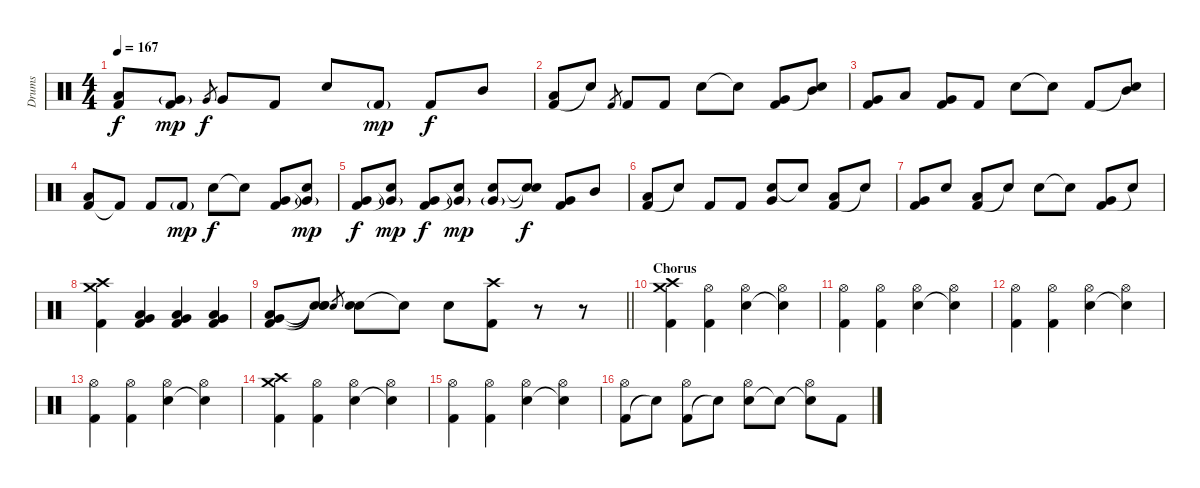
\track ("Drums" "Drums") {instrument percussion}
\staff {score}
\articulation defaults
\ts (4 4)
\tempo 167
\clef neutral
\ks c
("Kick (hit) 2" "Low Tom (hit)").8{dy f} ("Kick (hit) 2" "Very Low Tom (hit)"{g}).8{dy mp} "Very Low Tom (hit)".8{gr dy f} "Very Low Tom (hit)".8 "Kick (hit) 2".8 "Electric Snare (hit)".8 "Kick (hit) 2"{g}.8{dy mp} "Kick (hit) 2".8{dy f} "Mid Tom (hit)".8 |
("Kick (hit) 2" "Low Tom (hit)").8 "Snare (hit)"{t}.8 "Kick (hit) 2".8{gr} "Kick (hit) 2".8 "Kick (hit) 2".8 "Electric Snare (hit)".8 "Snare (hit)"{t}.8 ("Kick (hit) 2" "Very Low Tom (hit)").8 ("Snare (hit)"{t} "Mid Tom (hit)").8 |
("Kick (hit) 2" "Very Low Tom (hit)").8 "Low Tom (hit)".8 ("Kick (hit) 2" "Very Low Tom (hit)").8 "Kick (hit) 2".8 "Electric Snare (hit)".8 "Snare (hit)"{t}.8 "Kick (hit) 2".8 ("Snare (hit)"{t} "Mid Tom (hit)").8 |
("Kick (hit) 2" "Low Tom (hit)").8 "Kick (hit) 2"{t}.8 "Kick (hit) 2".8 "Kick (hit) 2"{g}.8{dy mp} "Electric Snare (hit)".8{dy f} "Snare (hit)"{t}.8 ("Kick (hit) 2" "Very Low Tom (hit)").8 ("Snare (hit)"{t} "Very Low Tom (hit)"{g}).8{dy mp} |
("Kick (hit) 2" "Very Low Tom (hit)").8{dy f} ("Snare (hit)"{t} "Very Low Tom (hit)"{g}).8{dy mp} ("Kick (hit) 2" "Very Low Tom (hit)").8{dy f} ("Snare (hit)"{t} "Very Low Tom (hit)"{g}).8{dy mp} ("Electric Snare (hit)" "Very Low Tom (hit)"{g}).8 ("Snare (hit)"{t} "Snare (hit)"{t}).8{dy f} ("Kick (hit) 2" "Very Low Tom (hit)").8 "Mid Tom (hit)".8 |
("Kick (hit) 2" "Low Tom (hit)").8 "Snare (hit)"{t}.8 "Kick (hit) 2".8 "Kick (hit) 2".8 ("Electric Snare (hit)" "Very Low Tom (hit)").8 "Snare (hit)"{t}.8 ("Kick (hit) 2" "Low Tom (hit)").8 "Snare (hit)"{t}.8 |
("Kick (hit) 2" "Very Low Tom (hit)").8 "Electric Snare (hit)".8 ("Kick (hit) 2" "Low Tom (hit)").8 "Snare (hit)"{t}.8 "Electric Snare (hit)".8 "Snare (hit)"{t}.8 ("Kick (hit) 2" "Very Low Tom (hit)").8 "Snare (hit)"{t}.8 |
("Crash high (hit)" "Crash medium (hit)" "Kick (hit) 2").4 ("Very Low Tom (hit)" "Low Tom (hit)" "Kick (hit) 2").4 ("Very Low Tom (hit)" "Low Tom (hit)" "Kick (hit) 2").4 ("Very Low Tom (hit)" "Low Tom (hit)" "Kick (hit) 2").4 |
\barLineRight lightlight
("Very Low Tom (hit)" "Low Tom (hit)" "Kick (hit) 2").8 ("Snare (hit)"{t} "Snare (hit)"{t} "Snare (hit)"{t}).8 "Electric Snare (hit)".8{gr} ("Electric Snare (hit)" "Electric Snare (hit)").8 "Snare (hit)"{t}.8 "Electric Snare (hit)".8 ("Kick (hit) 2" "Crash high (hit)").8 r.8 r.8 |
\section ("" "Chorus")
("Kick (hit) 2" "Crash medium (hit)" "Crash high (hit)").4 ("Kick (hit) 2" "Hi-Hat (open)").4 ("Electric Snare (hit)" "Hi-Hat (open)").4 ("Snare (hit)"{t} "Hi-Hat (open)").4 |
("Kick (hit) 2" "Hi-Hat (open)").4 ("Kick (hit) 2" "Hi-Hat (open)").4 ("Electric Snare (hit)" "Hi-Hat (open)").4 ("Snare (hit)"{t} "Hi-Hat (open)").4 |
("Kick (hit) 2" "Hi-Hat (open)").4 ("Kick (hit) 2" "Hi-Hat (open)").4 ("Electric Snare (hit)" "Hi-Hat (open)").4 ("Snare (hit)"{t} "Hi-Hat (open)").4 |
("Kick (hit) 2" "Hi-Hat (open)").4 ("Kick (hit) 2" "Hi-Hat (open)").4 ("Electric Snare (hit)" "Hi-Hat (open)").4 ("Snare (hit)"{t} "Hi-Hat (open)").4 |
("Kick (hit) 2" "Crash medium (hit)" "Crash high (hit)").4 ("Kick (hit) 2" "Hi-Hat (open)").4 ("Electric Snare (hit)" "Hi-Hat (open)").4 ("Snare (hit)"{t} "Hi-Hat (open)").4 |
("Kick (hit) 2" "Hi-Hat (open)").4 ("Kick (hit) 2" "Hi-Hat (open)").4 ("Electric Snare (hit)" "Hi-Hat (open)").4 ("Snare (hit)"{t} "Hi-Hat (open)").4 |
("Kick (hit) 2" "Hi-Hat (open)").8 "Snare (hit)"{t}.8 ("Kick (hit) 2" "Hi-Hat (open)").8 "Snare (hit)"{t}.8 ("Electric Snare (hit)" "Hi-Hat (open)").8 "Snare (hit)"{t}.8 ("Snare (hit)"{t} "Hi-Hat (open)").8 "Kick (hit) 2".8
